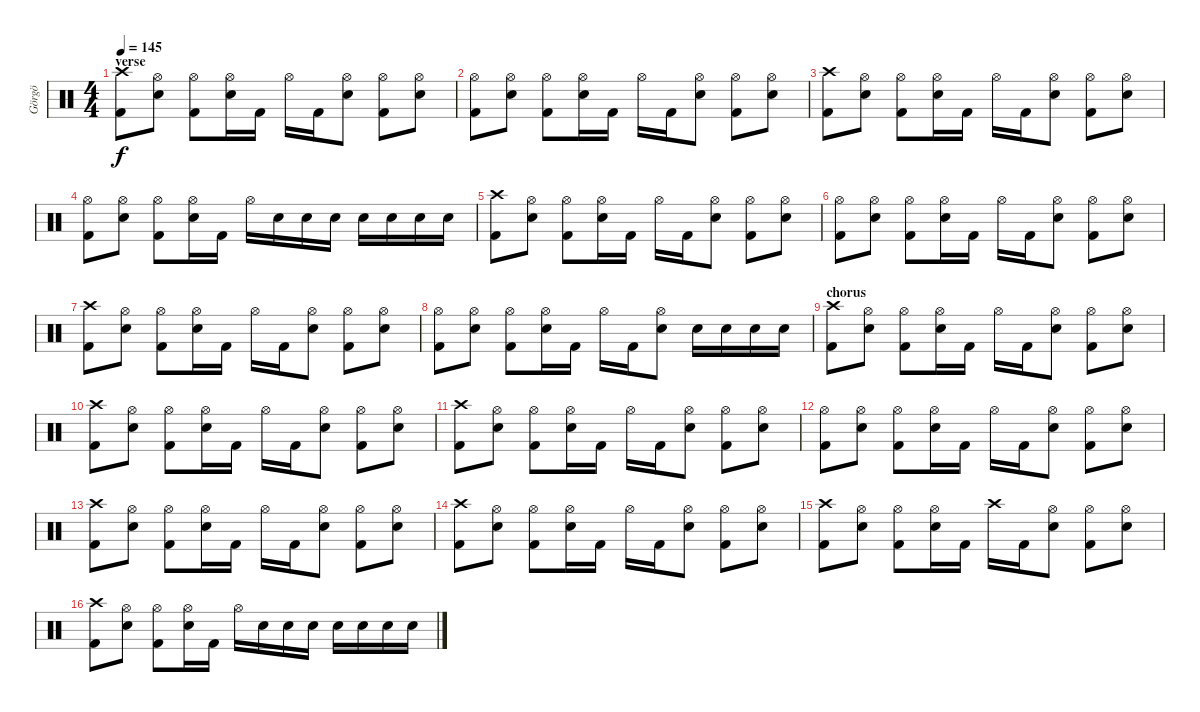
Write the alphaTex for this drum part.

\track ("Görgö" "Görgö") {instrument percussion}
\staff {score}
\articulation defaults
\ts (4 4)
\section ("" "verse")
\tempo 145
\clef neutral
\ks c
("Crash high (hit)" "Kick (hit) 2").8{dy f} ("Hi-Hat (open)" "Snare (hit) 2").8 ("Hi-Hat (open)" "Kick (hit) 2").8 ("Hi-Hat (open)" "Snare (hit) 2").16 "Kick (hit) 2".16 "Hi-Hat (open)".16 "Kick (hit) 2".16 ("Hi-Hat (open)" "Snare (hit) 2").8 ("Hi-Hat (open)" "Kick (hit) 2").8 ("Hi-Hat (open)" "Snare (hit) 2").8 |
("Hi-Hat (open)" "Kick (hit) 2").8 ("Hi-Hat (open)" "Snare (hit) 2").8 ("Hi-Hat (open)" "Kick (hit) 2").8 ("Hi-Hat (open)" "Snare (hit) 2").16 "Kick (hit) 2".16 "Hi-Hat (open)".16 "Kick (hit) 2".16 ("Hi-Hat (open)" "Snare (hit) 2").8 ("Hi-Hat (open)" "Kick (hit) 2").8 ("Hi-Hat (open)" "Snare (hit) 2").8 |
("Crash high (hit)" "Kick (hit) 2").8 ("Hi-Hat (open)" "Snare (hit) 2").8 ("Hi-Hat (open)" "Kick (hit) 2").8 ("Hi-Hat (open)" "Snare (hit) 2").16 "Kick (hit) 2".16 "Hi-Hat (open)".16 "Kick (hit) 2".16 ("Hi-Hat (open)" "Snare (hit) 2").8 ("Hi-Hat (open)" "Kick (hit) 2").8 ("Hi-Hat (open)" "Snare (hit) 2").8 |
("Hi-Hat (open)" "Kick (hit) 2").8 ("Hi-Hat (open)" "Snare (hit) 2").8 ("Hi-Hat (open)" "Kick (hit) 2").8 ("Hi-Hat (open)" "Snare (hit) 2").16 "Kick (hit) 2".16 "Hi-Hat (open)".16 "Snare (hit) 2".16 "Snare (hit) 2".16 "Snare (hit) 2".16 "Snare (hit) 2".16 "Snare (hit) 2".16 "Snare (hit) 2".16 "Snare (hit) 2".16 |
("Crash high (hit)" "Kick (hit) 2").8 ("Hi-Hat (open)" "Snare (hit) 2").8 ("Hi-Hat (open)" "Kick (hit) 2").8 ("Hi-Hat (open)" "Snare (hit) 2").16 "Kick (hit) 2".16 "Hi-Hat (open)".16 "Kick (hit) 2".16 ("Hi-Hat (open)" "Snare (hit) 2").8 ("Hi-Hat (open)" "Kick (hit) 2").8 ("Hi-Hat (open)" "Snare (hit) 2").8 |
("Hi-Hat (open)" "Kick (hit) 2").8 ("Hi-Hat (open)" "Snare (hit) 2").8 ("Hi-Hat (open)" "Kick (hit) 2").8 ("Hi-Hat (open)" "Snare (hit) 2").16 "Kick (hit) 2".16 "Hi-Hat (open)".16 "Kick (hit) 2".16 ("Hi-Hat (open)" "Snare (hit) 2").8 ("Hi-Hat (open)" "Kick (hit) 2").8 ("Hi-Hat (open)" "Snare (hit) 2").8 |
("Crash high (hit)" "Kick (hit) 2").8 ("Hi-Hat (open)" "Snare (hit) 2").8 ("Hi-Hat (open)" "Kick (hit) 2").8 ("Hi-Hat (open)" "Snare (hit) 2").16 "Kick (hit) 2".16 "Hi-Hat (open)".16 "Kick (hit) 2".16 ("Hi-Hat (open)" "Snare (hit) 2").8 ("Hi-Hat (open)" "Kick (hit) 2").8 ("Hi-Hat (open)" "Snare (hit) 2").8 |
("Hi-Hat (open)" "Kick (hit) 2").8 ("Hi-Hat (open)" "Snare (hit) 2").8 ("Hi-Hat (open)" "Kick (hit) 2").8 ("Hi-Hat (open)" "Snare (hit) 2").16 "Kick (hit) 2".16 "Hi-Hat (open)".16 "Kick (hit) 2".16 ("Hi-Hat (open)" "Snare (hit) 2").8 "Snare (hit) 2".16 "Snare (hit) 2".16 "Snare (hit) 2".16 "Snare (hit) 2".16 |
\section ("" "chorus")
("Crash high (hit)" "Kick (hit) 2").8 ("Hi-Hat (open)" "Snare (hit) 2").8 ("Hi-Hat (open)" "Kick (hit) 2").8 ("Hi-Hat (open)" "Snare (hit) 2").16 "Kick (hit) 2".16 "Hi-Hat (open)".16 "Kick (hit) 2".16 ("Hi-Hat (open)" "Snare (hit) 2").8 ("Hi-Hat (open)" "Kick (hit) 2").8 ("Hi-Hat (open)" "Snare (hit) 2").8 |
("Crash high (hit)" "Kick (hit) 2").8 ("Hi-Hat (open)" "Snare (hit) 2").8 ("Hi-Hat (open)" "Kick (hit) 2").8 ("Hi-Hat (open)" "Snare (hit) 2").16 "Kick (hit) 2".16 "Hi-Hat (open)".16 "Kick (hit) 2".16 ("Hi-Hat (open)" "Snare (hit) 2").8 ("Hi-Hat (open)" "Kick (hit) 2").8 ("Hi-Hat (open)" "Snare (hit) 2").8 |
("Crash high (hit)" "Kick (hit) 2").8 ("Hi-Hat (open)" "Snare (hit) 2").8 ("Hi-Hat (open)" "Kick (hit) 2").8 ("Hi-Hat (open)" "Snare (hit) 2").16 "Kick (hit) 2".16 "Hi-Hat (open)".16 "Kick (hit) 2".16 ("Hi-Hat (open)" "Snare (hit) 2").8 ("Hi-Hat (open)" "Kick (hit) 2").8 ("Hi-Hat (open)" "Snare (hit) 2").8 |
("Hi-Hat (open)" "Kick (hit) 2").8 ("Hi-Hat (open)" "Snare (hit) 2").8 ("Hi-Hat (open)" "Kick (hit) 2").8 ("Hi-Hat (open)" "Snare (hit) 2").16 "Kick (hit) 2".16 "Hi-Hat (open)".16 "Kick (hit) 2".16 ("Hi-Hat (open)" "Snare (hit) 2").8 ("Hi-Hat (open)" "Kick (hit) 2").8 ("Hi-Hat (open)" "Snare (hit) 2").8 |
("Crash high (hit)" "Kick (hit) 2").8 ("Hi-Hat (open)" "Snare (hit) 2").8 ("Hi-Hat (open)" "Kick (hit) 2").8 ("Hi-Hat (open)" "Snare (hit) 2").16 "Kick (hit) 2".16 "Hi-Hat (open)".16 "Kick (hit) 2".16 ("Hi-Hat (open)" "Snare (hit) 2").8 ("Hi-Hat (open)" "Kick (hit) 2").8 ("Hi-Hat (open)" "Snare (hit) 2").8 |
("Crash high (hit)" "Kick (hit) 2").8 ("Hi-Hat (open)" "Snare (hit) 2").8 ("Hi-Hat (open)" "Kick (hit) 2").8 ("Hi-Hat (open)" "Snare (hit) 2").16 "Kick (hit) 2".16 "Hi-Hat (open)".16 "Kick (hit) 2".16 ("Hi-Hat (open)" "Snare (hit) 2").8 ("Hi-Hat (open)" "Kick (hit) 2").8 ("Hi-Hat (open)" "Snare (hit) 2").8 |
("Crash high (hit)" "Kick (hit) 2").8 ("Hi-Hat (open)" "Snare (hit) 2").8 ("Hi-Hat (open)" "Kick (hit) 2").8 ("Hi-Hat (open)" "Snare (hit) 2").16 "Kick (hit) 2".16 "Crash high (hit)".16 "Kick (hit) 2".16 ("Hi-Hat (open)" "Snare (hit) 2").8 ("Hi-Hat (open)" "Kick (hit) 2").8 ("Hi-Hat (open)" "Snare (hit) 2").8 |
("Crash high (hit)" "Kick (hit) 2").8 ("Hi-Hat (open)" "Snare (hit) 2").8 ("Hi-Hat (open)" "Kick (hit) 2").8 ("Hi-Hat (open)" "Snare (hit) 2").16 "Kick (hit) 2".16 "Hi-Hat (open)".16 "Snare (hit) 2".16 "Snare (hit) 2".16 "Snare (hit) 2".16 "Snare (hit) 2".16 "Snare (hit) 2".16 "Snare (hit) 2".16 "Snare (hit) 2".16
